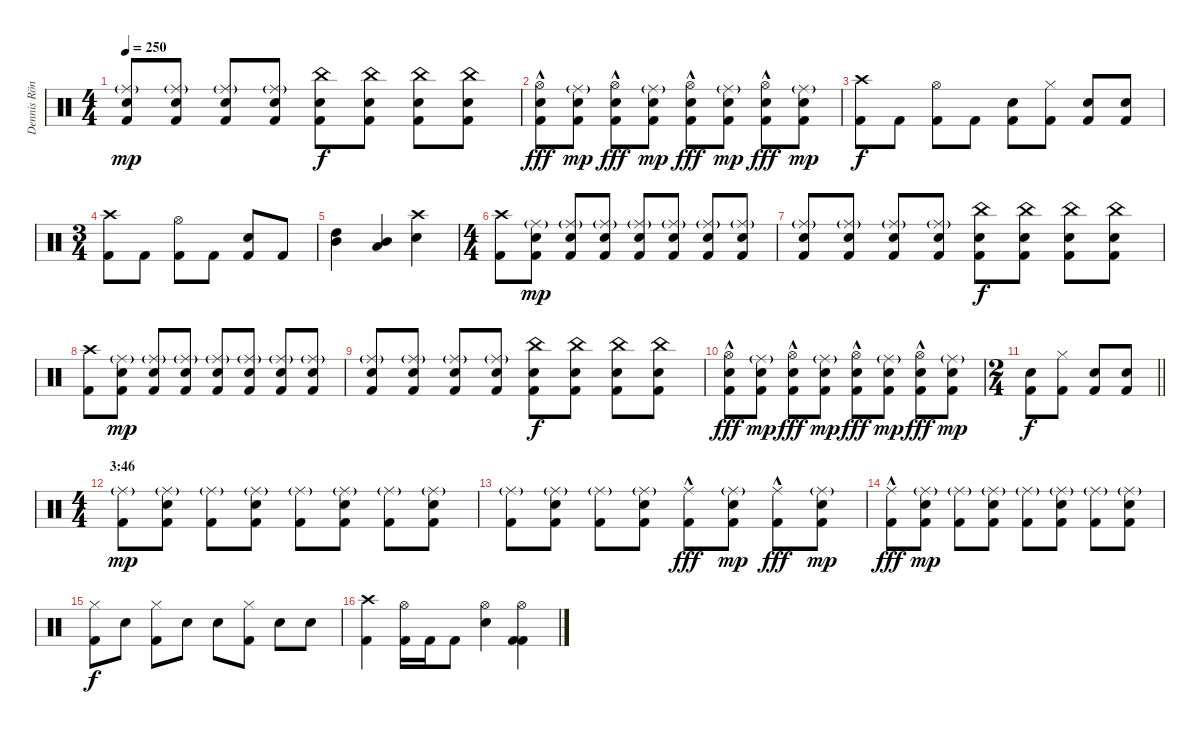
\track ("Dennis Röndum" "Dennis Rön") {instrument percussion}
\staff {score}
\articulation defaults
\ts (4 4)
\tempo 250
\clef neutral
\ks c
("Snare (hit) 2" "Ride (middle)"{g} "Kick (hit) 2").8{dy mp} ("Snare (hit) 2" "Ride (middle)"{g} "Kick (hit) 2").8 ("Snare (hit) 2" "Ride (middle)"{g} "Kick (hit) 2").8 ("Snare (hit) 2" "Ride (middle)"{g} "Kick (hit) 2").8 ("China (hit)" "Snare (hit) 2" "Kick (hit) 2").8{dy f} ("China (hit)" "Snare (hit) 2" "Kick (hit) 2").8 ("China (hit)" "Snare (hit) 2" "Kick (hit) 2").8 ("China (hit)" "Snare (hit) 2" "Kick (hit) 2").8 |
("Snare (hit) 2" "Hi-Hat (open)"{hac} "Kick (hit) 2").8{dy fff} ("Snare (hit) 2" "Ride (middle)"{g} "Kick (hit) 2").8{dy mp} ("Snare (hit) 2" "Hi-Hat (open)"{hac} "Kick (hit) 2").8{dy fff} ("Snare (hit) 2" "Ride (middle)"{g} "Kick (hit) 2").8{dy mp} ("Snare (hit) 2" "Hi-Hat (open)"{hac} "Kick (hit) 2").8{dy fff} ("Snare (hit) 2" "Ride (middle)"{g} "Kick (hit) 2").8{dy mp} ("Snare (hit) 2" "Hi-Hat (open)"{hac} "Kick (hit) 2").8{dy fff} ("Snare (hit) 2" "Ride (middle)"{g} "Kick (hit) 2").8{dy mp} |
("Crash high (hit)" "Kick (hit) 2").8{dy f} "Kick (hit) 2".8 ("Hi-Hat (open)" "Kick (hit) 2").8 "Kick (hit) 2".8 ("Snare (hit) 2" "Kick (hit) 2").8 ("Hi-Hat (closed)" "Kick (hit) 2").8 ("Snare (hit) 2" "Kick (hit) 2").8 ("Snare (hit) 2" "Kick (hit) 2").8 |
\ts (3 4)
("Crash high (hit)" "Kick (hit) 2").8 "Kick (hit) 2".8 ("Hi-Hat (open)" "Kick (hit) 2").8 "Kick (hit) 2".8 ("Snare (hit) 2" "Kick (hit) 2").8 "Kick (hit) 2".8 |
("Mid Tom (hit)" "High Tom (hit)").4 ("Mid Tom (hit)" "Low Floor Tom (hit)").4 ("Crash high (hit)" "Snare (hit) 2").4 |
\ts (4 4)
("Crash high (hit)" "Kick (hit) 2").8 ("Snare (hit) 2" "Ride (middle)"{g} "Kick (hit) 2").8{dy mp} ("Snare (hit) 2" "Ride (middle)"{g} "Kick (hit) 2").8 ("Snare (hit) 2" "Ride (middle)"{g} "Kick (hit) 2").8 ("Snare (hit) 2" "Ride (middle)"{g} "Kick (hit) 2").8 ("Snare (hit) 2" "Ride (middle)"{g} "Kick (hit) 2").8 ("Snare (hit) 2" "Ride (middle)"{g} "Kick (hit) 2").8 ("Snare (hit) 2" "Ride (middle)"{g} "Kick (hit) 2").8 |
("Snare (hit) 2" "Ride (middle)"{g} "Kick (hit) 2").8 ("Snare (hit) 2" "Ride (middle)"{g} "Kick (hit) 2").8 ("Snare (hit) 2" "Ride (middle)"{g} "Kick (hit) 2").8 ("Snare (hit) 2" "Ride (middle)"{g} "Kick (hit) 2").8 ("China (hit)" "Snare (hit) 2" "Kick (hit) 2").8{dy f} ("China (hit)" "Snare (hit) 2" "Kick (hit) 2").8 ("China (hit)" "Snare (hit) 2" "Kick (hit) 2").8 ("China (hit)" "Snare (hit) 2" "Kick (hit) 2").8 |
("Crash high (hit)" "Kick (hit) 2").8 ("Snare (hit) 2" "Ride (middle)"{g} "Kick (hit) 2").8{dy mp} ("Snare (hit) 2" "Ride (middle)"{g} "Kick (hit) 2").8 ("Snare (hit) 2" "Ride (middle)"{g} "Kick (hit) 2").8 ("Snare (hit) 2" "Ride (middle)"{g} "Kick (hit) 2").8 ("Snare (hit) 2" "Ride (middle)"{g} "Kick (hit) 2").8 ("Snare (hit) 2" "Ride (middle)"{g} "Kick (hit) 2").8 ("Snare (hit) 2" "Ride (middle)"{g} "Kick (hit) 2").8 |
("Snare (hit) 2" "Ride (middle)"{g} "Kick (hit) 2").8 ("Snare (hit) 2" "Ride (middle)"{g} "Kick (hit) 2").8 ("Snare (hit) 2" "Ride (middle)"{g} "Kick (hit) 2").8 ("Snare (hit) 2" "Ride (middle)"{g} "Kick (hit) 2").8 ("China (hit)" "Snare (hit) 2" "Kick (hit) 2").8{dy f} ("China (hit)" "Snare (hit) 2" "Kick (hit) 2").8 ("China (hit)" "Snare (hit) 2" "Kick (hit) 2").8 ("China (hit)" "Snare (hit) 2" "Kick (hit) 2").8 |
("Snare (hit) 2" "Hi-Hat (open)"{hac} "Kick (hit) 2").8{dy fff} ("Snare (hit) 2" "Ride (middle)"{g} "Kick (hit) 2").8{dy mp} ("Snare (hit) 2" "Hi-Hat (open)"{hac} "Kick (hit) 2").8{dy fff} ("Snare (hit) 2" "Ride (middle)"{g} "Kick (hit) 2").8{dy mp} ("Snare (hit) 2" "Hi-Hat (open)"{hac} "Kick (hit) 2").8{dy fff} ("Snare (hit) 2" "Ride (middle)"{g} "Kick (hit) 2").8{dy mp} ("Snare (hit) 2" "Hi-Hat (open)"{hac} "Kick (hit) 2").8{dy fff} ("Snare (hit) 2" "Ride (middle)"{g} "Kick (hit) 2").8{dy mp} |
\ts (2 4)
\barLineRight lightlight
("Snare (hit) 2" "Kick (hit) 2").8{dy f} ("Hi-Hat (closed)" "Kick (hit) 2").8 ("Snare (hit) 2" "Kick (hit) 2").8 ("Snare (hit) 2" "Kick (hit) 2").8 |
\ts (4 4)
\section ("" "3:46")
("Ride (middle)"{g} "Kick (hit) 2").8{dy mp} ("Snare (hit) 2" "Ride (middle)"{g} "Kick (hit) 2").8 ("Ride (middle)"{g} "Kick (hit) 2").8 ("Snare (hit) 2" "Ride (middle)"{g} "Kick (hit) 2").8 ("Ride (middle)"{g} "Kick (hit) 2").8 ("Snare (hit) 2" "Ride (middle)"{g} "Kick (hit) 2").8 ("Ride (middle)"{g} "Kick (hit) 2").8 ("Snare (hit) 2" "Ride (middle)"{g} "Kick (hit) 2").8 |
("Ride (middle)"{g} "Kick (hit) 2").8 ("Snare (hit) 2" "Ride (middle)"{g} "Kick (hit) 2").8 ("Ride (middle)"{g} "Kick (hit) 2").8 ("Snare (hit) 2" "Ride (middle)"{g} "Kick (hit) 2").8 ("Ride (middle)"{hac} "Kick (hit) 2").8{dy fff} ("Snare (hit) 2" "Ride (middle)"{g} "Kick (hit) 2").8{dy mp} ("Ride (middle)"{hac} "Kick (hit) 2").8{dy fff} ("Snare (hit) 2" "Ride (middle)"{g} "Kick (hit) 2").8{dy mp} |
("Ride (middle)"{hac} "Kick (hit) 2").8{dy fff} ("Snare (hit) 2" "Ride (middle)"{g} "Kick (hit) 2").8{dy mp} ("Ride (middle)"{g} "Kick (hit) 2").8 ("Snare (hit) 2" "Ride (middle)"{g} "Kick (hit) 2").8 ("Ride (middle)"{g} "Kick (hit) 2").8 ("Snare (hit) 2" "Ride (middle)"{g} "Kick (hit) 2").8 ("Ride (middle)"{g} "Kick (hit) 2").8 ("Snare (hit) 2" "Ride (middle)"{g} "Kick (hit) 2").8 |
("Hi-Hat (closed)" "Kick (hit) 2").8{dy f} "Snare (hit) 2".8 ("Hi-Hat (closed)" "Kick (hit) 2").8 "Snare (hit) 2".8 "Snare (hit) 2".8 ("Hi-Hat (closed)" "Kick (hit) 2").8 "Snare (hit) 2".8 "Snare (hit) 2".8 |
("Crash high (hit)" "Kick (hit) 2").4 ("Hi-Hat (open)" "Kick (hit) 2").16 "Kick (hit) 2".16 "Kick (hit) 2".8 ("Snare (hit) 2" "Hi-Hat (open)").4 ("Hi-Hat (open)" "Kick (hit) 2" "Kick (hit) 2").4
